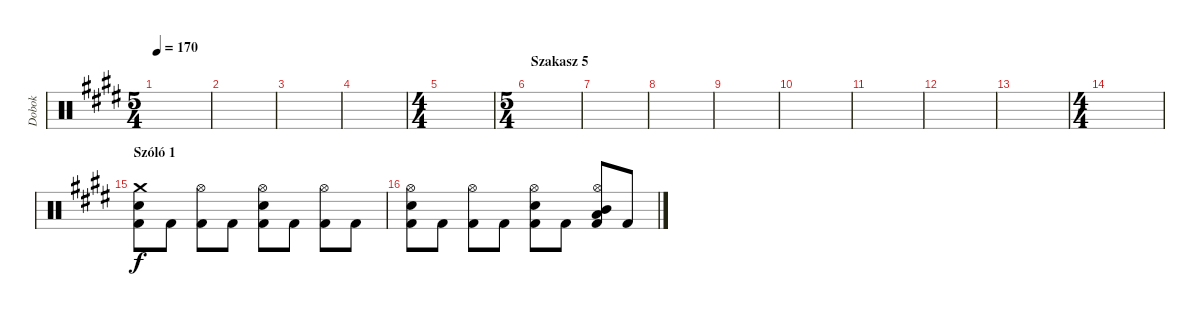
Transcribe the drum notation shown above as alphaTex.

\track ("Dobok" "Dobok") {instrument percussion}
\staff {score}
\articulation defaults
\ts (5 4)
\tempo 170
\clef neutral
\ks c#minor
|
|
|
|
\ts (4 4)
|
\ts (5 4)
\section ("" "Szakasz 5")
|
|
|
|
|
|
|
|
\ts (4 4)
|
\section ("" "Szóló 1")
("Crash medium (hit)" "Snare (hit) 2" "Kick (hit) 2").8 "Kick (hit) 2".8 ("Hi-Hat (open)" "Kick (hit) 2").8 "Kick (hit) 2".8 ("Hi-Hat (open)" "Snare (hit) 2" "Kick (hit) 2").8 "Kick (hit) 2".8 ("Hi-Hat (open)" "Kick (hit) 2").8 "Kick (hit) 2".8 |
("Hi-Hat (open)" "Snare (hit) 2" "Kick (hit) 2").8 "Kick (hit) 2".8 ("Hi-Hat (open)" "Kick (hit) 2").8 "Kick (hit) 2".8 ("Hi-Hat (open)" "Snare (hit) 2" "Kick (hit) 2").8 "Kick (hit) 2".8 ("Hi-Hat (open)" "Low Tom (hit)" "Mid Tom (hit)" "Kick (hit) 2").8 "Kick (hit) 2".8
